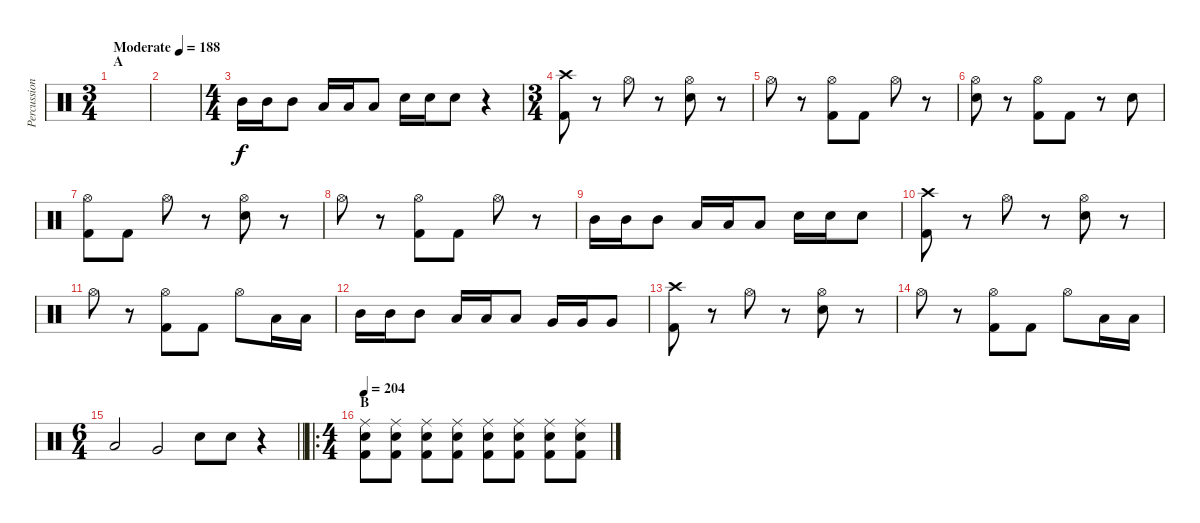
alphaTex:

\track ("Percussion" "Percussion") {instrument percussion}
\staff {score}
\articulation defaults
\ts (3 4)
\section ("" "A")
\tempo (188 "Moderate")
\clef neutral
\ks c
|
|
\ts (4 4)
"Mid Tom (hit)".16 "Mid Tom (hit)".16 "Mid Tom (hit)".8 "Low Tom (hit)".16 "Low Tom (hit)".16 "Low Tom (hit)".8 "Electric Snare (hit)".16 "Electric Snare (hit)".16 "Electric Snare (hit)".8 r.4 |
\ts (3 4)
("Crash high (hit)" "Kick (hit) 2").8 r.8 "Hi-Hat (open)".8 r.8 ("Hi-Hat (open)" "Electric Snare (hit)").8 r.8 |
"Hi-Hat (open)".8 r.8 ("Hi-Hat (open)" "Kick (hit) 2").8 "Kick (hit) 2".8 "Hi-Hat (open)".8 r.8 |
("Hi-Hat (open)" "Electric Snare (hit)").8 r.8 ("Hi-Hat (open)" "Kick (hit) 2").8 "Kick (hit) 2".8 r.8 "Electric Snare (hit)".8 |
("Hi-Hat (open)" "Kick (hit) 2").8 "Kick (hit) 2".8 "Hi-Hat (open)".8 r.8 ("Hi-Hat (open)" "Electric Snare (hit)").8 r.8 |
"Hi-Hat (open)".8 r.8 ("Hi-Hat (open)" "Kick (hit) 2").8 "Kick (hit) 2".8 "Hi-Hat (open)".8 r.8 |
"Mid Tom (hit)".16 "Mid Tom (hit)".16 "Mid Tom (hit)".8 "Low Tom (hit)".16 "Low Tom (hit)".16 "Low Tom (hit)".8 "Electric Snare (hit)".16 "Electric Snare (hit)".16 "Electric Snare (hit)".8 |
("Crash high (hit)" "Kick (hit) 2").8 r.8 "Hi-Hat (open)".8 r.8 ("Hi-Hat (open)" "Electric Snare (hit)").8 r.8 |
"Hi-Hat (open)".8 r.8 ("Hi-Hat (open)" "Kick (hit) 2").8 "Kick (hit) 2".8 "Hi-Hat (open)".8 "Low Floor Tom (hit)".16 "Low Floor Tom (hit)".16 |
"Mid Tom (hit)".16 "Mid Tom (hit)".16 "Mid Tom (hit)".8 "Low Tom (hit)".16 "Low Tom (hit)".16 "Low Tom (hit)".8 "Very Low Tom (hit)".16 "Very Low Tom (hit)".16 "Very Low Tom (hit)".8 |
("Crash high (hit)" "Kick (hit) 2").8 r.8 "Hi-Hat (open)".8 r.8 ("Hi-Hat (open)" "Electric Snare (hit)").8 r.8 |
"Hi-Hat (open)".8 r.8 ("Hi-Hat (open)" "Kick (hit) 2").8 "Kick (hit) 2".8 "Hi-Hat (open)".8 "Low Floor Tom (hit)".16 "Low Floor Tom (hit)".16 |
\ts (6 4)
\barLineRight lightlight "Low Tom (hit)".2 "Very Low Tom (hit)".2 "Electric Snare (hit)".8 "Electric Snare (hit)".8
r.4 |
\ro
\ts (4 4)
\section ("" "B")
\tempo 204
("Ride (middle)" "Electric Snare (hit)" "Kick (hit) 2").8 ("Ride (middle)" "Electric Snare (hit)" "Kick (hit) 2").8 ("Ride (middle)" "Electric Snare (hit)" "Kick (hit) 2").8 ("Ride (middle)" "Electric Snare (hit)" "Kick (hit) 2").8 ("Ride (middle)" "Electric Snare (hit)" "Kick (hit) 2").8 ("Ride (middle)" "Electric Snare (hit)" "Kick (hit) 2").8 ("Ride (middle)" "Electric Snare (hit)" "Kick (hit) 2").8 ("Ride (middle)" "Electric Snare (hit)" "Kick (hit) 2").8
